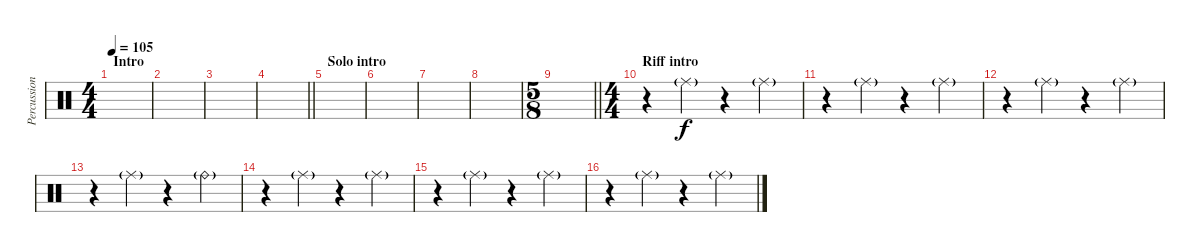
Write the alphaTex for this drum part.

\track ("Percussion" "Percussion") {instrument percussion}
\staff {score}
\articulation defaults
\ts (4 4)
\section ("" "Intro")
\tempo 105
\clef neutral
\ks c
|
|
|
\barLineRight lightlight
|
\section ("" "Solo intro")
|
|
|
|
\ts (5 8)
\barLineRight lightlight
|
\ts (4 4)
\section ("" "Riff intro")
r.4 "Ride (middle)"{g}.4 r.4 "Ride (middle)"{g}.4 |
r.4 "Ride (middle)"{g}.4 r.4 "Ride (middle)"{g}.4 |
r.4 "Ride (middle)"{g}.4 r.4 "Ride (middle)"{g}.4 |
r.4 "Ride (middle)"{g}.4 r.4 "Ride (bell)"{g}.4 |
r.4 "Ride (middle)"{g}.4 r.4 "Ride (middle)"{g}.4 |
r.4 "Ride (middle)"{g}.4 r.4 "Ride (middle)"{g}.4 |
r.4 "Ride (middle)"{g}.4 r.4 "Ride (middle)"{g}.4
